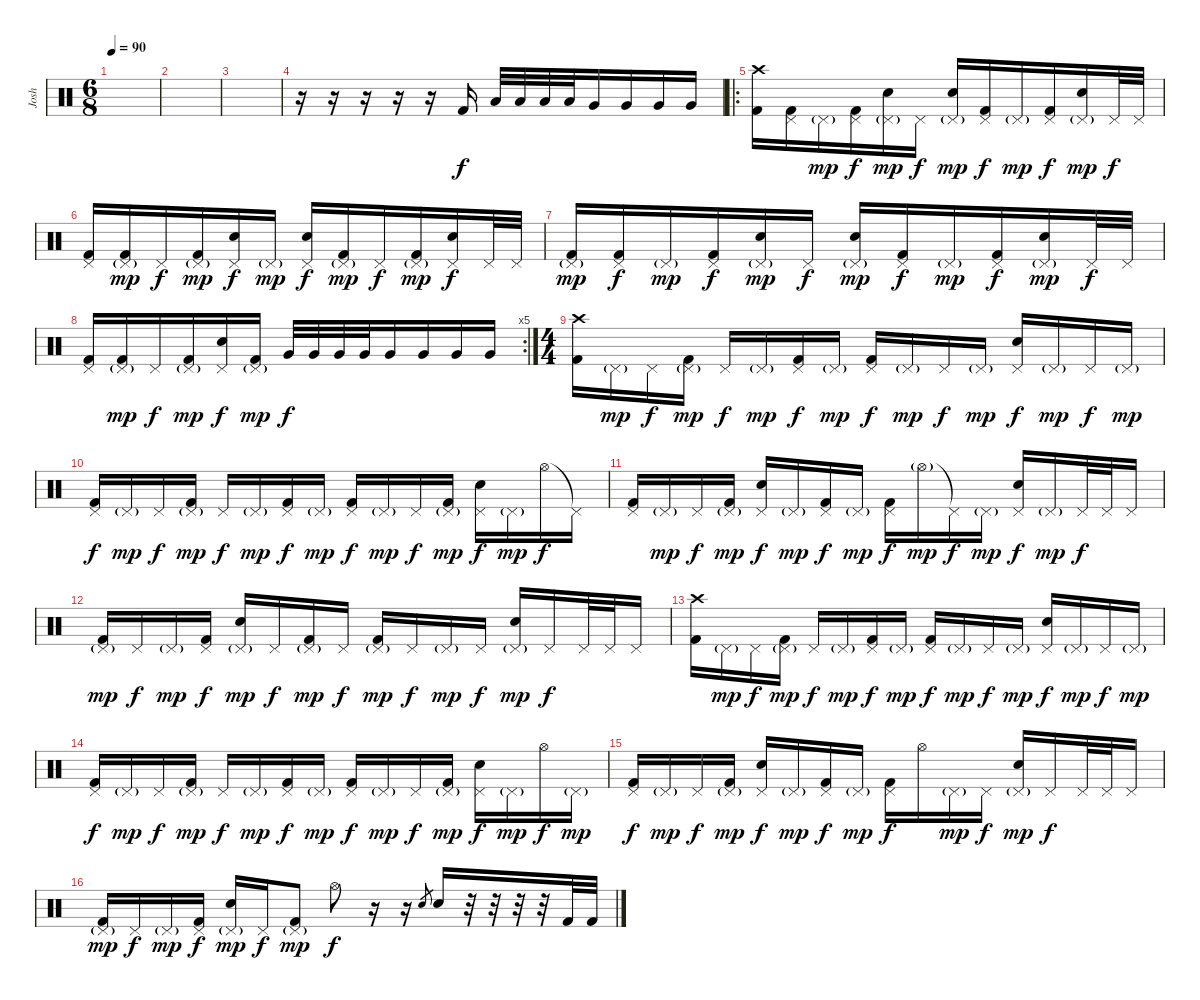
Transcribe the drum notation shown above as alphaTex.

\track ("Josh" "Josh") {instrument percussion}
\staff {score}
\articulation defaults
\ts (6 8)
\tempo 90
\clef neutral
\ks c
|
|
|
r.16 r.16 r.16 r.16 r.16 "Kick (hit) 2".16 "Low Tom (hit)".32 "Low Tom (hit)".32 "Low Tom (hit)".32 "Low Tom (hit)".32 "Very Low Tom (hit)".16 "Very Low Tom (hit)".16 "Very Low Tom (hit)".16 "Very Low Tom (hit)".16 |
\ro
("Crash high (hit)" "Kick (hit) 2").16 ("Pedal Hi-Hat (hit)" "Kick (hit) 2").16 "Pedal Hi-Hat (hit)"{g}.16{dy mp} ("Pedal Hi-Hat (hit)" "Kick (hit) 2").16{dy f} ("Pedal Hi-Hat (hit)"{g} "Electric Snare (hit)").16{dy mp} "Pedal Hi-Hat (hit)".16{dy f} ("Pedal Hi-Hat (hit)"{g} "Electric Snare (hit)").16{dy mp} ("Pedal Hi-Hat (hit)" "Kick (hit) 2").16{dy f} "Pedal Hi-Hat (hit)"{g}.16{dy mp} ("Pedal Hi-Hat (hit)" "Kick (hit) 2").16{dy f} ("Pedal Hi-Hat (hit)"{g} "Electric Snare (hit)").16{dy mp} "Pedal Hi-Hat (hit)".32{dy f} "Pedal Hi-Hat (hit)".32 |
("Pedal Hi-Hat (hit)" "Kick (hit) 2").16 ("Pedal Hi-Hat (hit)"{g} "Kick (hit) 2").16{dy mp} "Pedal Hi-Hat (hit)".16{dy f} ("Pedal Hi-Hat (hit)"{g} "Kick (hit) 2").16{dy mp} ("Pedal Hi-Hat (hit)" "Electric Snare (hit)").16{dy f} "Pedal Hi-Hat (hit)"{g}.16{dy mp} ("Pedal Hi-Hat (hit)" "Electric Snare (hit)").16{dy f} ("Pedal Hi-Hat (hit)"{g} "Kick (hit) 2").16{dy mp} "Pedal Hi-Hat (hit)".16{dy f} ("Pedal Hi-Hat (hit)"{g} "Kick (hit) 2").16{dy mp} ("Pedal Hi-Hat (hit)" "Electric Snare (hit)").16{dy f} "Pedal Hi-Hat (hit)".32 "Pedal Hi-Hat (hit)".32 |
("Pedal Hi-Hat (hit)"{g} "Kick (hit) 2").16{dy mp} ("Pedal Hi-Hat (hit)" "Kick (hit) 2").16{dy f} "Pedal Hi-Hat (hit)"{g}.16{dy mp} ("Pedal Hi-Hat (hit)" "Kick (hit) 2").16{dy f} ("Pedal Hi-Hat (hit)"{g} "Electric Snare (hit)").16{dy mp} "Pedal Hi-Hat (hit)".16{dy f} ("Pedal Hi-Hat (hit)"{g} "Electric Snare (hit)").16{dy mp} ("Pedal Hi-Hat (hit)" "Kick (hit) 2").16{dy f} "Pedal Hi-Hat (hit)"{g}.16{dy mp} ("Pedal Hi-Hat (hit)" "Kick (hit) 2").16{dy f} ("Pedal Hi-Hat (hit)"{g} "Electric Snare (hit)").16{dy mp} "Pedal Hi-Hat (hit)".32{dy f} "Pedal Hi-Hat (hit)".32 |
\rc 5
("Pedal Hi-Hat (hit)" "Kick (hit) 2").16 ("Pedal Hi-Hat (hit)"{g} "Kick (hit) 2").16{dy mp} "Pedal Hi-Hat (hit)".16{dy f} ("Pedal Hi-Hat (hit)"{g} "Kick (hit) 2").16{dy mp} ("Pedal Hi-Hat (hit)" "Electric Snare (hit)").16{dy f} ("Pedal Hi-Hat (hit)"{g} "Kick (hit) 2").16{dy mp} "Very Low Tom (hit)".32{dy f} "Very Low Tom (hit)".32 "Very Low Tom (hit)".32 "Very Low Tom (hit)".32 "Very Low Tom (hit)".16 "Very Low Tom (hit)".16 "Very Low Tom (hit)".16 "Very Low Tom (hit)".16 |
\ts (4 4)
("Crash high (hit)" "Kick (hit) 2").16 "Pedal Hi-Hat (hit)"{g}.16{dy mp} "Pedal Hi-Hat (hit)".16{dy f} ("Pedal Hi-Hat (hit)"{g} "Kick (hit) 2").16{dy mp} "Pedal Hi-Hat (hit)".16{dy f} "Pedal Hi-Hat (hit)"{g}.16{dy mp} ("Pedal Hi-Hat (hit)" "Kick (hit) 2").16{dy f} "Pedal Hi-Hat (hit)"{g}.16{dy mp} ("Pedal Hi-Hat (hit)" "Kick (hit) 2").16{dy f} "Pedal Hi-Hat (hit)"{g}.16{dy mp} "Pedal Hi-Hat (hit)".16{dy f} "Pedal Hi-Hat (hit)"{g}.16{dy mp} ("Pedal Hi-Hat (hit)" "Electric Snare (hit)").16{dy f} "Pedal Hi-Hat (hit)"{g}.16{dy mp} "Pedal Hi-Hat (hit)".16{dy f} "Pedal Hi-Hat (hit)"{g}.16{dy mp} |
("Pedal Hi-Hat (hit)" "Kick (hit) 2").16{dy f} "Pedal Hi-Hat (hit)"{g}.16{dy mp} "Pedal Hi-Hat (hit)".16{dy f} ("Pedal Hi-Hat (hit)"{g} "Kick (hit) 2").16{dy mp} "Pedal Hi-Hat (hit)".16{dy f} "Pedal Hi-Hat (hit)"{g}.16{dy mp} ("Pedal Hi-Hat (hit)" "Kick (hit) 2").16{dy f} "Pedal Hi-Hat (hit)"{g}.16{dy mp} ("Pedal Hi-Hat (hit)" "Kick (hit) 2").16{dy f} "Pedal Hi-Hat (hit)"{g}.16{dy mp} "Pedal Hi-Hat (hit)".16{dy f} ("Pedal Hi-Hat (hit)"{g} "Kick (hit) 2").16{dy mp} ("Pedal Hi-Hat (hit)" "Electric Snare (hit)").16{dy f} "Pedal Hi-Hat (hit)"{g}.16{dy mp} "Hi-Hat (open)".16{dy f} "Pedal Hi-Hat (hit)"{t}.16 |
("Pedal Hi-Hat (hit)" "Kick (hit) 2").16 "Pedal Hi-Hat (hit)"{g}.16{dy mp} "Pedal Hi-Hat (hit)".16{dy f} ("Pedal Hi-Hat (hit)"{g} "Kick (hit) 2").16{dy mp} ("Pedal Hi-Hat (hit)" "Electric Snare (hit)").16{dy f} "Pedal Hi-Hat (hit)"{g}.16{dy mp} ("Pedal Hi-Hat (hit)" "Kick (hit) 2").16{dy f} "Pedal Hi-Hat (hit)"{g}.16{dy mp} ("Pedal Hi-Hat (hit)" "Kick (hit) 2").16{dy f} "Hi-Hat (open)"{g}.16{dy mp} "Pedal Hi-Hat (hit)"{t}.16{dy f} "Pedal Hi-Hat (hit)"{g}.16{dy mp} ("Pedal Hi-Hat (hit)" "Electric Snare (hit)").16{dy f} "Pedal Hi-Hat (hit)"{g}.16{dy mp} "Pedal Hi-Hat (hit)".32{dy f} "Pedal Hi-Hat (hit)".32 "Pedal Hi-Hat (hit)".16 |
("Pedal Hi-Hat (hit)"{g} "Kick (hit) 2").16{dy mp} "Pedal Hi-Hat (hit)".16{dy f} "Pedal Hi-Hat (hit)"{g}.16{dy mp} ("Pedal Hi-Hat (hit)" "Kick (hit) 2").16{dy f} ("Pedal Hi-Hat (hit)"{g} "Electric Snare (hit)").16{dy mp} "Pedal Hi-Hat (hit)".16{dy f} ("Pedal Hi-Hat (hit)"{g} "Kick (hit) 2").16{dy mp} "Pedal Hi-Hat (hit)".16{dy f} ("Pedal Hi-Hat (hit)"{g} "Kick (hit) 2").16{dy mp} "Pedal Hi-Hat (hit)".16{dy f} "Pedal Hi-Hat (hit)"{g}.16{dy mp} "Pedal Hi-Hat (hit)".16{dy f} ("Pedal Hi-Hat (hit)"{g} "Electric Snare (hit)").16{dy mp} "Pedal Hi-Hat (hit)".16{dy f} "Pedal Hi-Hat (hit)".32 "Pedal Hi-Hat (hit)".32 "Pedal Hi-Hat (hit)".16 |
("Crash high (hit)" "Kick (hit) 2").16 "Pedal Hi-Hat (hit)"{g}.16{dy mp} "Pedal Hi-Hat (hit)".16{dy f} ("Pedal Hi-Hat (hit)"{g} "Kick (hit) 2").16{dy mp} "Pedal Hi-Hat (hit)".16{dy f} "Pedal Hi-Hat (hit)"{g}.16{dy mp} ("Pedal Hi-Hat (hit)" "Kick (hit) 2").16{dy f} "Pedal Hi-Hat (hit)"{g}.16{dy mp} ("Pedal Hi-Hat (hit)" "Kick (hit) 2").16{dy f} "Pedal Hi-Hat (hit)"{g}.16{dy mp} "Pedal Hi-Hat (hit)".16{dy f} "Pedal Hi-Hat (hit)"{g}.16{dy mp} ("Pedal Hi-Hat (hit)" "Electric Snare (hit)").16{dy f} "Pedal Hi-Hat (hit)"{g}.16{dy mp} "Pedal Hi-Hat (hit)".16{dy f} "Pedal Hi-Hat (hit)"{g}.16{dy mp} |
("Pedal Hi-Hat (hit)" "Kick (hit) 2").16{dy f} "Pedal Hi-Hat (hit)"{g}.16{dy mp} "Pedal Hi-Hat (hit)".16{dy f} ("Pedal Hi-Hat (hit)"{g} "Kick (hit) 2").16{dy mp} "Pedal Hi-Hat (hit)".16{dy f} "Pedal Hi-Hat (hit)"{g}.16{dy mp} ("Pedal Hi-Hat (hit)" "Kick (hit) 2").16{dy f} "Pedal Hi-Hat (hit)"{g}.16{dy mp} ("Pedal Hi-Hat (hit)" "Kick (hit) 2").16{dy f} "Pedal Hi-Hat (hit)"{g}.16{dy mp} "Pedal Hi-Hat (hit)".16{dy f} ("Pedal Hi-Hat (hit)"{g} "Kick (hit) 2").16{dy mp} ("Pedal Hi-Hat (hit)" "Electric Snare (hit)").16{dy f} "Pedal Hi-Hat (hit)"{g}.16{dy mp} "Hi-Hat (open)".16{dy f} "Pedal Hi-Hat (hit)"{g}.16{dy mp} |
("Pedal Hi-Hat (hit)" "Kick (hit) 2").16{dy f} "Pedal Hi-Hat (hit)"{g}.16{dy mp} "Pedal Hi-Hat (hit)".16{dy f} ("Pedal Hi-Hat (hit)"{g} "Kick (hit) 2").16{dy mp} ("Pedal Hi-Hat (hit)" "Electric Snare (hit)").16{dy f} "Pedal Hi-Hat (hit)"{g}.16{dy mp} ("Pedal Hi-Hat (hit)" "Kick (hit) 2").16{dy f} "Pedal Hi-Hat (hit)"{g}.16{dy mp} ("Pedal Hi-Hat (hit)" "Kick (hit) 2").16{dy f} "Hi-Hat (open)".16 "Pedal Hi-Hat (hit)"{g}.16{dy mp} "Pedal Hi-Hat (hit)".16{dy f} ("Pedal Hi-Hat (hit)"{g} "Electric Snare (hit)").16{dy mp} "Pedal Hi-Hat (hit)".16{dy f} "Pedal Hi-Hat (hit)".32 "Pedal Hi-Hat (hit)".32 "Pedal Hi-Hat (hit)".16 |
("Pedal Hi-Hat (hit)"{g} "Kick (hit) 2").16{dy mp} "Pedal Hi-Hat (hit)".16{dy f} "Pedal Hi-Hat (hit)"{g}.16{dy mp} ("Pedal Hi-Hat (hit)" "Kick (hit) 2").16{dy f} ("Pedal Hi-Hat (hit)"{g} "Electric Snare (hit)").16{dy mp} "Pedal Hi-Hat (hit)".16{dy f} ("Pedal Hi-Hat (hit)"{g} "Kick (hit) 2").8{dy mp} "Hi-Hat (open)".8{dy f} r.16 r.16 "Electric Snare (hit)".8{gr} "Electric Snare (hit)".16 r.32 r.32 r.32 r.32 "Kick (hit) 2".32 "Kick (hit) 2".32
